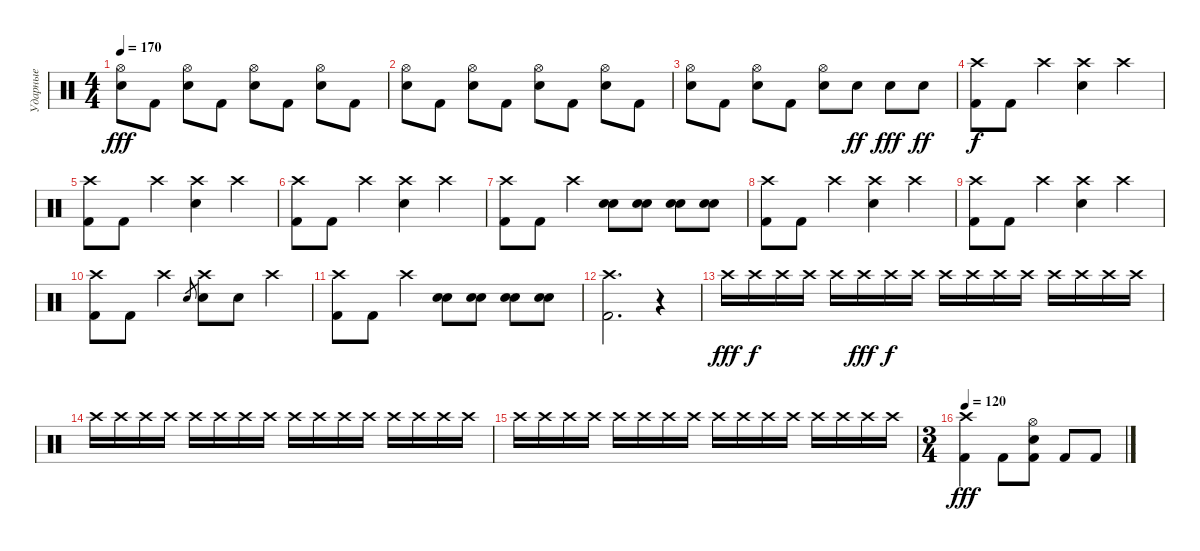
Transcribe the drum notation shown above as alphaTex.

\track ("Ударные" "Ударные") {instrument percussion}
\staff {score}
\articulation defaults
\ts (4 4)
\tempo 170
\clef neutral
\ks c
("Hi-Hat (open)" "Electric Snare (hit)").8{dy fff} "Kick (hit) 2".8 ("Hi-Hat (open)" "Electric Snare (hit)").8 "Kick (hit) 2".8 ("Hi-Hat (open)" "Electric Snare (hit)").8 "Kick (hit) 2".8 ("Hi-Hat (open)" "Electric Snare (hit)").8 "Kick (hit) 2".8 |
("Hi-Hat (open)" "Electric Snare (hit)").8 "Kick (hit) 2".8 ("Hi-Hat (open)" "Electric Snare (hit)").8 "Kick (hit) 2".8 ("Hi-Hat (open)" "Electric Snare (hit)").8 "Kick (hit) 2".8 ("Hi-Hat (open)" "Electric Snare (hit)").8 "Kick (hit) 2".8 |
("Hi-Hat (open)" "Electric Snare (hit)").8 "Kick (hit) 2".8 ("Hi-Hat (open)" "Electric Snare (hit)").8 "Kick (hit) 2".8 ("Hi-Hat (open)" "Electric Snare (hit)").8 "Electric Snare (hit)".8{dy ff} "Electric Snare (hit)".8{dy fff} "Electric Snare (hit)".8{dy ff} |
("Crash high (hit)" "Kick (hit) 2").8{dy f} "Kick (hit) 2".8 "Crash high (hit)".4 ("Crash high (hit)" "Electric Snare (hit)").4 "Crash high (hit)".4 |
("Crash high (hit)" "Kick (hit) 2").8 "Kick (hit) 2".8 "Crash high (hit)".4 ("Crash high (hit)" "Electric Snare (hit)").4 "Crash high (hit)".4 |
("Crash high (hit)" "Kick (hit) 2").8 "Kick (hit) 2".8 "Crash high (hit)".4 ("Crash high (hit)" "Electric Snare (hit)").4 "Crash high (hit)".4 |
("Crash high (hit)" "Kick (hit) 2").8 "Kick (hit) 2".8 "Crash high (hit)".4 ("Snare (hit) 2" "Electric Snare (hit)").8 ("Snare (hit) 2" "Electric Snare (hit)").8 ("Snare (hit) 2" "Electric Snare (hit)").8 ("Snare (hit) 2" "Electric Snare (hit)").8 |
("Crash high (hit)" "Kick (hit) 2").8 "Kick (hit) 2".8 "Crash high (hit)".4 ("Crash high (hit)" "Electric Snare (hit)").4 "Crash high (hit)".4 |
("Crash high (hit)" "Kick (hit) 2").8 "Kick (hit) 2".8 "Crash high (hit)".4 ("Crash high (hit)" "Electric Snare (hit)").4 "Crash high (hit)".4 |
("Crash high (hit)" "Kick (hit) 2").8 "Kick (hit) 2".8 "Crash high (hit)".4 "Electric Snare (hit)".8{gr} ("Crash high (hit)" "Electric Snare (hit)").8 "Electric Snare (hit)".8 "Crash high (hit)".4 |
("Crash high (hit)" "Kick (hit) 2").8 "Kick (hit) 2".8 "Crash high (hit)".4 ("Snare (hit) 2" "Electric Snare (hit)").8 ("Snare (hit) 2" "Electric Snare (hit)").8 ("Snare (hit) 2" "Electric Snare (hit)").8 ("Snare (hit) 2" "Electric Snare (hit)").8 |
("Crash high (hit)" "Kick (hit) 2").2{d} r.4{volume 0 balance 8} |
"Crash high (hit)".16{dy fff volume 8} "Crash high (hit)".16{dy f} "Crash high (hit)".16 "Crash high (hit)".16 "Crash high (hit)".16 "Crash high (hit)".16{dy fff} "Crash high (hit)".16{dy f} "Crash high (hit)".16 "Crash high (hit)".16 "Crash high (hit)".16 "Crash high (hit)".16 "Crash high (hit)".16 "Crash high (hit)".16 "Crash high (hit)".16 "Crash high (hit)".16 "Crash high (hit)".16 |
"Crash high (hit)".16 "Crash high (hit)".16 "Crash high (hit)".16 "Crash high (hit)".16 "Crash high (hit)".16 "Crash high (hit)".16 "Crash high (hit)".16 "Crash high (hit)".16 "Crash high (hit)".16 "Crash high (hit)".16 "Crash high (hit)".16 "Crash high (hit)".16 "Crash high (hit)".16 "Crash high (hit)".16 "Crash high (hit)".16 "Crash high (hit)".16 |
"Crash high (hit)".16{volume 16} "Crash high (hit)".16 "Crash high (hit)".16 "Crash high (hit)".16 "Crash high (hit)".16 "Crash high (hit)".16 "Crash high (hit)".16 "Crash high (hit)".16 "Crash high (hit)".16 "Crash high (hit)".16 "Crash high (hit)".16 "Crash high (hit)".16 "Crash high (hit)".16 "Crash high (hit)".16 "Crash high (hit)".16 "Crash high (hit)".16 |
\ts (3 4)
\tempo 120
("Crash high (hit)" "Kick (hit) 2").4{dy fff} "Kick (hit) 2".8 ("Kick (hit) 2" "Electric Snare (hit)" "Hi-Hat (open)").8 "Kick (hit) 2".8 "Kick (hit) 2".8
